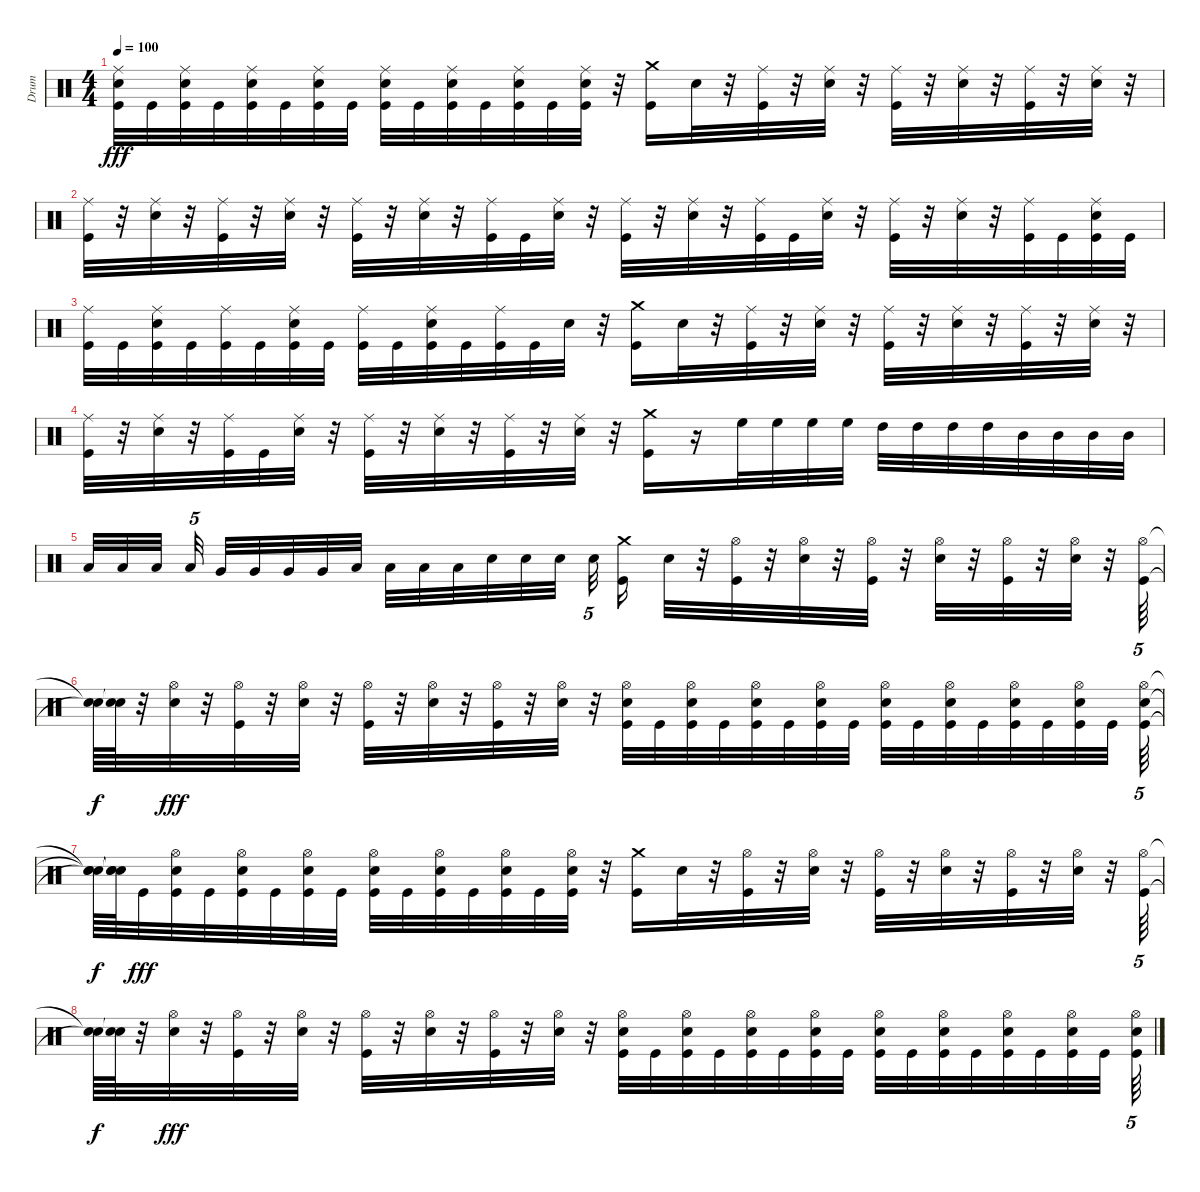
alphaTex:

\track ("Drum" "Drum") {instrument percussion}
\staff {score}
\articulation defaults
\ts (4 4)
\tempo 100
\clef neutral
\ks c
("Snare (hit) 2" "Kick (hit)" "Ride (middle)").32{dy fff} "Kick (hit)".32 ("Ride (middle)" "Snare (hit) 2" "Kick (hit)").32 "Kick (hit)".32 ("Snare (hit) 2" "Kick (hit)" "Ride (middle)").32 "Kick (hit)".32 ("Kick (hit)" "Snare (hit) 2" "Ride (middle)").32 "Kick (hit)".32 ("Ride (middle)" "Kick (hit)" "Snare (hit) 2").32 "Kick (hit)".32 ("Kick (hit)" "Ride (middle)" "Snare (hit) 2").32 "Kick (hit)".32 ("Ride (middle)" "Snare (hit) 2" "Kick (hit)").32 "Kick (hit)".32 ("Kick (hit)" "Ride (middle)" "Snare (hit) 2").32 r.32 ("Kick (hit)" "Crash medium (hit)").16 "Snare (hit) 2".32 r.32 ("Kick (hit)" "Ride (middle)").32 r.32 ("Ride (middle)" "Snare (hit) 2").32 r.32 ("Kick (hit)" "Ride (middle)").32 r.32 ("Ride (middle)" "Snare (hit) 2").32 r.32 ("Ride (middle)" "Kick (hit)").32 r.32 ("Ride (middle)" "Snare (hit) 2").32 r.32 |
("Kick (hit)" "Ride (middle)").32 r.32 ("Ride (middle)" "Snare (hit) 2").32 r.32 ("Ride (middle)" "Kick (hit)").32 r.32 ("Ride (middle)" "Snare (hit) 2").32 r.32 ("Ride (middle)" "Kick (hit)").32 r.32 ("Ride (middle)" "Snare (hit) 2").32 r.32 ("Kick (hit)" "Ride (middle)").32 "Kick (hit)".32 ("Ride (middle)" "Snare (hit) 2").32 r.32 ("Kick (hit)" "Ride (middle)").32 r.32 ("Ride (middle)" "Snare (hit) 2").32 r.32 ("Ride (middle)" "Kick (hit)").32 "Kick (hit)".32 ("Ride (middle)" "Snare (hit) 2").32 r.32 ("Kick (hit)" "Ride (middle)").32 r.32 ("Ride (middle)" "Snare (hit) 2").32 r.32 ("Kick (hit)" "Ride (middle)").32 "Kick (hit)".32 ("Ride (middle)" "Kick (hit)" "Snare (hit) 2").32 "Kick (hit)".32 |
("Kick (hit)" "Ride (middle)").32 "Kick (hit)".32 ("Kick (hit)" "Ride (middle)" "Snare (hit) 2").32 "Kick (hit)".32 ("Ride (middle)" "Kick (hit)").32 "Kick (hit)".32 ("Kick (hit)" "Ride (middle)" "Snare (hit) 2").32 "Kick (hit)".32 ("Kick (hit)" "Ride (middle)").32 "Kick (hit)".32 ("Kick (hit)" "Ride (middle)" "Snare (hit) 2").32 "Kick (hit)".32 ("Kick (hit)" "Ride (middle)").32 "Kick (hit)".32 "Snare (hit) 2".32 r.32 ("Crash medium (hit)" "Kick (hit)").16 "Snare (hit) 2".32 r.32 ("Kick (hit)" "Ride (middle)").32 r.32 ("Ride (middle)" "Snare (hit) 2").32 r.32 ("Ride (middle)" "Kick (hit)").32 r.32 ("Ride (middle)" "Snare (hit) 2").32 r.32 ("Kick (hit)" "Ride (middle)").32 r.32 ("Ride (middle)" "Snare (hit) 2").32 r.32 |
("Kick (hit)" "Ride (middle)").32 r.32 ("Ride (middle)" "Snare (hit) 2").32 r.32 ("Ride (middle)" "Kick (hit)").32 "Kick (hit)".32 ("Ride (middle)" "Snare (hit) 2").32 r.32 ("Ride (middle)" "Kick (hit)").32 r.32 ("Ride (middle)" "Snare (hit) 2").32 r.32 ("Kick (hit)" "Ride (middle)").32 r.32 ("Ride (middle)" "Snare (hit) 2").32 r.32 ("Crash medium (hit)" "Kick (hit)").16 r.16 "High Floor Tom (hit)".32 "High Floor Tom (hit)".32 "High Floor Tom (hit)".32 "High Floor Tom (hit)".32 "High Tom (hit)".32 "High Tom (hit)".32 "High Tom (hit)".32 "High Tom (hit)".32 "Mid Tom (hit)".32 "Mid Tom (hit)".32 "Mid Tom (hit)".32 "Mid Tom (hit)".32 |
"Low Tom (hit)".32 "Low Tom (hit)".32 "Low Tom (hit)".32 "Low Tom (hit)".32{tu (5 4)} "Very Low Tom (hit)".32 "Very Low Tom (hit)".32 "Very Low Tom (hit)".32 "Very Low Tom (hit)".32 "Low Floor Tom (hit)".32 "Low Floor Tom (hit)".32 "Low Floor Tom (hit)".32 "Low Floor Tom (hit)".32 "Snare (hit) 2".32 "Snare (hit) 2".32 "Snare (hit) 2".32 "Snare (hit) 2".32{tu (5 4)} ("Crash medium (hit)" "Kick (hit)").16 "Snare (hit) 2".32 r.32 ("Kick (hit)" "Hi-Hat (open)").32 r.32 ("Hi-Hat (open)" "Snare (hit) 2").32 r.32 ("Kick (hit)" "Hi-Hat (open)").32 r.32 ("Snare (hit) 2" "Hi-Hat (open)").32 r.32 ("Kick (hit)" "Hi-Hat (open)").32 r.32 ("Snare (hit) 2" "Hi-Hat (open)").32 r.32 ("Kick (hit)" "Hi-Hat (open)").64{tu (5 4)} |
("Snare (hit)"{t} "Snare (hit)"{t}).64{dy f} ("Snare (hit)"{t} "Snare (hit)"{t}).64 r.32 ("Snare (hit) 2" "Hi-Hat (open)").32{dy fff} r.32 ("Kick (hit)" "Hi-Hat (open)").32 r.32 ("Snare (hit) 2" "Hi-Hat (open)").32 r.32 ("Kick (hit)" "Hi-Hat (open)").32 r.32 ("Snare (hit) 2" "Hi-Hat (open)").32 r.32 ("Kick (hit)" "Hi-Hat (open)").32 r.32 ("Hi-Hat (open)" "Snare (hit) 2").32 r.32 ("Kick (hit)" "Hi-Hat (open)" "Snare (hit) 2").32 "Kick (hit)".32 ("Kick (hit)" "Snare (hit) 2" "Hi-Hat (open)").32 "Kick (hit)".32 ("Kick (hit)" "Snare (hit) 2" "Hi-Hat (open)").32 "Kick (hit)".32 ("Kick (hit)" "Snare (hit) 2" "Hi-Hat (open)").32 "Kick (hit)".32 ("Kick (hit)" "Hi-Hat (open)" "Snare (hit) 2").32 "Kick (hit)".32 ("Kick (hit)" "Hi-Hat (open)" "Snare (hit) 2").32 "Kick (hit)".32 ("Kick (hit)" "Snare (hit) 2" "Hi-Hat (open)").32 "Kick (hit)".32 ("Kick (hit)" "Snare (hit) 2" "Hi-Hat (open)").32 "Kick (hit)".32 ("Kick (hit)" "Snare (hit) 2" "Hi-Hat (open)").64{tu (5 4)} |
("Snare (hit)"{t} "Snare (hit)"{t} "Snare (hit)"{t}).64{dy f} ("Snare (hit)"{t} "Snare (hit)"{t} "Snare (hit)"{t}).64 "Kick (hit)".32{dy fff} ("Kick (hit)" "Hi-Hat (open)" "Snare (hit) 2").32 "Kick (hit)".32 ("Kick (hit)" "Hi-Hat (open)" "Snare (hit) 2").32 "Kick (hit)".32 ("Kick (hit)" "Hi-Hat (open)" "Snare (hit) 2").32 "Kick (hit)".32 ("Kick (hit)" "Hi-Hat (open)" "Snare (hit) 2").32 "Kick (hit)".32 ("Kick (hit)" "Hi-Hat (open)" "Snare (hit) 2").32 "Kick (hit)".32 ("Kick (hit)" "Snare (hit) 2" "Hi-Hat (open)").32 "Kick (hit)".32 ("Kick (hit)" "Snare (hit) 2" "Hi-Hat (open)").32 r.32 ("Crash medium (hit)" "Kick (hit)").16 "Snare (hit) 2".32 r.32 ("Kick (hit)" "Hi-Hat (open)").32 r.32 ("Snare (hit) 2" "Hi-Hat (open)").32 r.32 ("Kick (hit)" "Hi-Hat (open)").32 r.32 ("Hi-Hat (open)" "Snare (hit) 2").32 r.32 ("Kick (hit)" "Hi-Hat (open)").32 r.32 ("Hi-Hat (open)" "Snare (hit) 2").32 r.32 ("Kick (hit)" "Hi-Hat (open)").64{tu (5 4)} |
("Snare (hit)"{t} "Snare (hit)"{t}).64{dy f} ("Snare (hit)"{t} "Snare (hit)"{t}).64 r.32 ("Snare (hit) 2" "Hi-Hat (open)").32{dy fff} r.32 ("Kick (hit)" "Hi-Hat (open)").32 r.32 ("Hi-Hat (open)" "Snare (hit) 2").32 r.32 ("Kick (hit)" "Hi-Hat (open)").32 r.32 ("Hi-Hat (open)" "Snare (hit) 2").32 r.32 ("Kick (hit)" "Hi-Hat (open)").32 r.32 ("Hi-Hat (open)" "Snare (hit) 2").32 r.32 ("Kick (hit)" "Snare (hit) 2" "Hi-Hat (open)").32 "Kick (hit)".32 ("Kick (hit)" "Snare (hit) 2" "Hi-Hat (open)").32 "Kick (hit)".32 ("Kick (hit)" "Hi-Hat (open)" "Snare (hit) 2").32 "Kick (hit)".32 ("Kick (hit)" "Hi-Hat (open)" "Snare (hit) 2").32 "Kick (hit)".32 ("Kick (hit)" "Hi-Hat (open)" "Snare (hit) 2").32 "Kick (hit)".32 ("Kick (hit)" "Hi-Hat (open)" "Snare (hit) 2").32 "Kick (hit)".32 ("Kick (hit)" "Snare (hit) 2" "Hi-Hat (open)").32 "Kick (hit)".32 ("Kick (hit)" "Snare (hit) 2" "Hi-Hat (open)").32 "Kick (hit)".32 ("Kick (hit)" "Snare (hit) 2" "Hi-Hat (open)").64{tu (5 4)}
